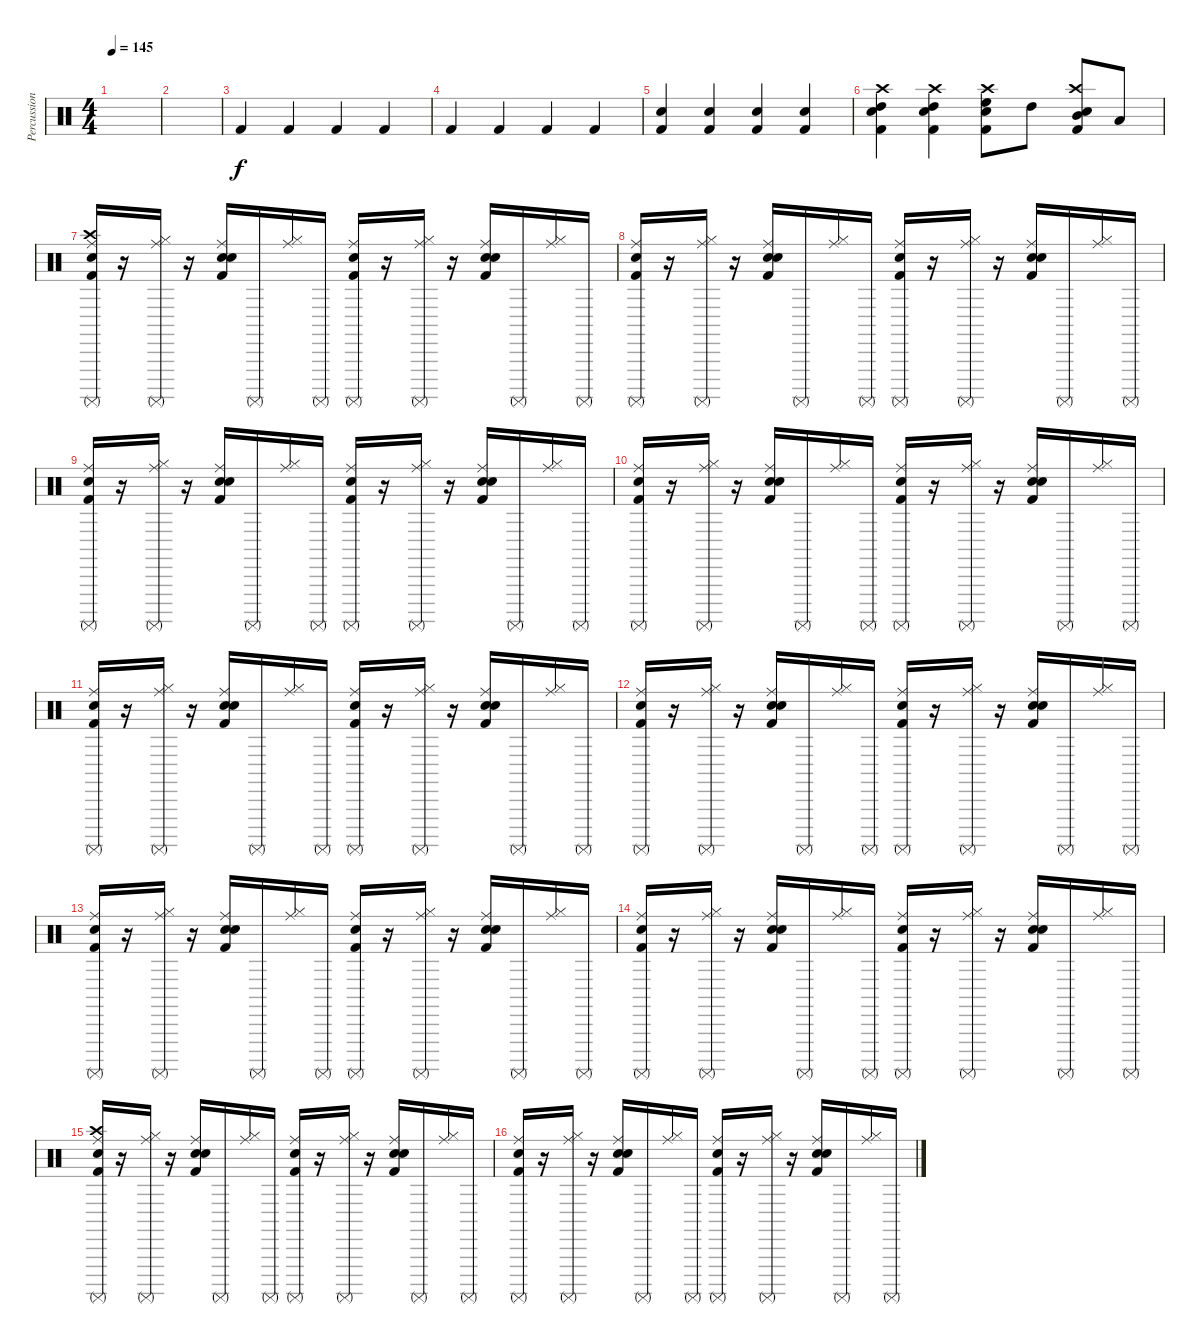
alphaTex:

\track ("Percussions" "Percussion") {instrument percussion}
\staff {score}
\articulation defaults
\ts (4 4)
\tempo 145
\clef neutral
\ks c
|
|
"Kick (hit) 2".4 "Kick (hit) 2".4 "Kick (hit) 2".4 "Kick (hit) 2".4 |
"Kick (hit) 2".4 "Kick (hit) 2".4 "Kick (hit) 2".4 "Kick (hit) 2".4 |
("Kick (hit) 2" "Snare (hit) 2").4 ("Kick (hit) 2" "Snare (hit) 2").4 ("Kick (hit) 2" "Snare (hit) 2").4 ("Kick (hit) 2" "Snare (hit) 2").4 |
("Kick (hit) 2" "Snare (hit) 2" "High Tom (hit)" "Crash high (hit)").4 ("Kick (hit) 2" "Snare (hit) 2" "High Tom (hit)" "Crash high (hit)").4 ("Kick (hit) 2" "Snare (hit) 2" "High Floor Tom (hit)" "Crash high (hit)").8 "High Tom (hit)".8 ("Kick (hit) 2" "Snare (hit) 2" "Mid Tom (hit)" "Crash high (hit)").8 "Low Tom (hit)".8 |
("Kick (hit) 2" "Snare (hit) 2" "Surdo (mute)" "Crash high (hit)" "Ride (middle)").16 r.16 ("Hi-Hat (closed)" "Surdo (mute)" "Ride (middle)").16 r.16 ("Kick (hit) 2" "Electric Snare (hit)" "Hand Clap (hit)" "Ride (middle)").16 "Surdo (mute)".16 ("Hi-Hat (closed)" "Ride (middle)").16 "Surdo (mute)".16 ("Kick (hit) 2" "Snare (hit) 2" "Surdo (mute)" "Ride (middle)").16 r.16 ("Hi-Hat (closed)" "Surdo (mute)" "Ride (middle)").16 r.16 ("Kick (hit) 2" "Electric Snare (hit)" "Hand Clap (hit)" "Ride (middle)").16 "Surdo (mute)".16 ("Hi-Hat (closed)" "Ride (middle)").16 "Surdo (mute)".16 |
("Kick (hit) 2" "Snare (hit) 2" "Surdo (mute)" "Ride (middle)").16 r.16 ("Hi-Hat (closed)" "Surdo (mute)" "Ride (middle)").16 r.16 ("Kick (hit) 2" "Electric Snare (hit)" "Hand Clap (hit)" "Ride (middle)").16 "Surdo (mute)".16 ("Hi-Hat (closed)" "Ride (middle)").16 "Surdo (mute)".16 ("Kick (hit) 2" "Snare (hit) 2" "Surdo (mute)" "Ride (middle)").16 r.16 ("Hi-Hat (closed)" "Surdo (mute)" "Ride (middle)").16 r.16 ("Kick (hit) 2" "Electric Snare (hit)" "Hand Clap (hit)" "Ride (middle)").16 "Surdo (mute)".16 ("Hi-Hat (closed)" "Ride (middle)").16 "Surdo (mute)".16 |
("Kick (hit) 2" "Snare (hit) 2" "Surdo (mute)" "Ride (middle)").16 r.16 ("Hi-Hat (closed)" "Surdo (mute)" "Ride (middle)").16 r.16 ("Kick (hit) 2" "Electric Snare (hit)" "Hand Clap (hit)" "Ride (middle)").16 "Surdo (mute)".16 ("Hi-Hat (closed)" "Ride (middle)").16 "Surdo (mute)".16 ("Kick (hit) 2" "Snare (hit) 2" "Surdo (mute)" "Ride (middle)").16 r.16 ("Hi-Hat (closed)" "Surdo (mute)" "Ride (middle)").16 r.16 ("Kick (hit) 2" "Electric Snare (hit)" "Hand Clap (hit)" "Ride (middle)").16 "Surdo (mute)".16 ("Hi-Hat (closed)" "Ride (middle)").16 "Surdo (mute)".16 |
("Kick (hit) 2" "Snare (hit) 2" "Surdo (mute)" "Ride (middle)").16 r.16 ("Hi-Hat (closed)" "Surdo (mute)" "Ride (middle)").16 r.16 ("Kick (hit) 2" "Electric Snare (hit)" "Hand Clap (hit)" "Ride (middle)").16 "Surdo (mute)".16 ("Hi-Hat (closed)" "Ride (middle)").16 "Surdo (mute)".16 ("Kick (hit) 2" "Snare (hit) 2" "Surdo (mute)" "Ride (middle)").16 r.16 ("Hi-Hat (closed)" "Surdo (mute)" "Ride (middle)").16 r.16 ("Kick (hit) 2" "Electric Snare (hit)" "Hand Clap (hit)" "Ride (middle)").16 "Surdo (mute)".16 ("Hi-Hat (closed)" "Ride (middle)").16 "Surdo (mute)".16 |
("Kick (hit) 2" "Snare (hit) 2" "Surdo (mute)" "Ride (middle)").16 r.16 ("Hi-Hat (closed)" "Surdo (mute)" "Ride (middle)").16 r.16 ("Kick (hit) 2" "Electric Snare (hit)" "Hand Clap (hit)" "Ride (middle)").16 "Surdo (mute)".16 ("Hi-Hat (closed)" "Ride (middle)").16 "Surdo (mute)".16 ("Kick (hit) 2" "Snare (hit) 2" "Surdo (mute)" "Ride (middle)").16 r.16 ("Hi-Hat (closed)" "Surdo (mute)" "Ride (middle)").16 r.16 ("Kick (hit) 2" "Electric Snare (hit)" "Hand Clap (hit)" "Ride (middle)").16 "Surdo (mute)".16 ("Hi-Hat (closed)" "Ride (middle)").16 "Surdo (mute)".16 |
("Kick (hit) 2" "Snare (hit) 2" "Surdo (mute)" "Ride (middle)").16 r.16 ("Hi-Hat (closed)" "Surdo (mute)" "Ride (middle)").16 r.16 ("Kick (hit) 2" "Electric Snare (hit)" "Hand Clap (hit)" "Ride (middle)").16 "Surdo (mute)".16 ("Hi-Hat (closed)" "Ride (middle)").16 "Surdo (mute)".16 ("Kick (hit) 2" "Snare (hit) 2" "Surdo (mute)" "Ride (middle)").16 r.16 ("Hi-Hat (closed)" "Surdo (mute)" "Ride (middle)").16 r.16 ("Kick (hit) 2" "Electric Snare (hit)" "Hand Clap (hit)" "Ride (middle)").16 "Surdo (mute)".16 ("Hi-Hat (closed)" "Ride (middle)").16 "Surdo (mute)".16 |
("Kick (hit) 2" "Snare (hit) 2" "Surdo (mute)" "Ride (middle)").16 r.16 ("Hi-Hat (closed)" "Surdo (mute)" "Ride (middle)").16 r.16 ("Kick (hit) 2" "Electric Snare (hit)" "Hand Clap (hit)" "Ride (middle)").16 "Surdo (mute)".16 ("Hi-Hat (closed)" "Ride (middle)").16 "Surdo (mute)".16 ("Kick (hit) 2" "Snare (hit) 2" "Surdo (mute)" "Ride (middle)").16 r.16 ("Hi-Hat (closed)" "Surdo (mute)" "Ride (middle)").16 r.16 ("Kick (hit) 2" "Electric Snare (hit)" "Hand Clap (hit)" "Ride (middle)").16 "Surdo (mute)".16 ("Hi-Hat (closed)" "Ride (middle)").16 "Surdo (mute)".16 |
("Kick (hit) 2" "Snare (hit) 2" "Surdo (mute)" "Ride (middle)").16 r.16 ("Hi-Hat (closed)" "Surdo (mute)" "Ride (middle)").16 r.16 ("Kick (hit) 2" "Electric Snare (hit)" "Hand Clap (hit)" "Ride (middle)").16 "Surdo (mute)".16 ("Hi-Hat (closed)" "Ride (middle)").16 "Surdo (mute)".16 ("Kick (hit) 2" "Snare (hit) 2" "Surdo (mute)" "Ride (middle)").16 r.16 ("Hi-Hat (closed)" "Surdo (mute)" "Ride (middle)").16 r.16 ("Kick (hit) 2" "Electric Snare (hit)" "Hand Clap (hit)" "Ride (middle)").16 "Surdo (mute)".16 ("Hi-Hat (closed)" "Ride (middle)").16 "Surdo (mute)".16 |
("Kick (hit) 2" "Snare (hit) 2" "Surdo (mute)" "Crash high (hit)" "Ride (middle)").16 r.16 ("Hi-Hat (closed)" "Surdo (mute)" "Ride (middle)").16 r.16 ("Kick (hit) 2" "Electric Snare (hit)" "Hand Clap (hit)" "Ride (middle)").16 "Surdo (mute)".16 ("Hi-Hat (closed)" "Ride (middle)").16 "Surdo (mute)".16 ("Kick (hit) 2" "Snare (hit) 2" "Surdo (mute)" "Ride (middle)").16 r.16 ("Hi-Hat (closed)" "Surdo (mute)" "Ride (middle)").16 r.16 ("Kick (hit) 2" "Electric Snare (hit)" "Hand Clap (hit)" "Ride (middle)").16 "Surdo (mute)".16 ("Hi-Hat (closed)" "Ride (middle)").16 "Surdo (mute)".16 |
("Kick (hit) 2" "Snare (hit) 2" "Surdo (mute)" "Ride (middle)").16 r.16 ("Hi-Hat (closed)" "Surdo (mute)" "Ride (middle)").16 r.16 ("Kick (hit) 2" "Electric Snare (hit)" "Hand Clap (hit)" "Ride (middle)").16 "Surdo (mute)".16 ("Hi-Hat (closed)" "Ride (middle)").16 "Surdo (mute)".16 ("Kick (hit) 2" "Snare (hit) 2" "Surdo (mute)" "Ride (middle)").16 r.16 ("Hi-Hat (closed)" "Surdo (mute)" "Ride (middle)").16 r.16 ("Kick (hit) 2" "Electric Snare (hit)" "Hand Clap (hit)" "Ride (middle)").16 "Surdo (mute)".16 ("Hi-Hat (closed)" "Ride (middle)").16 "Surdo (mute)".16
